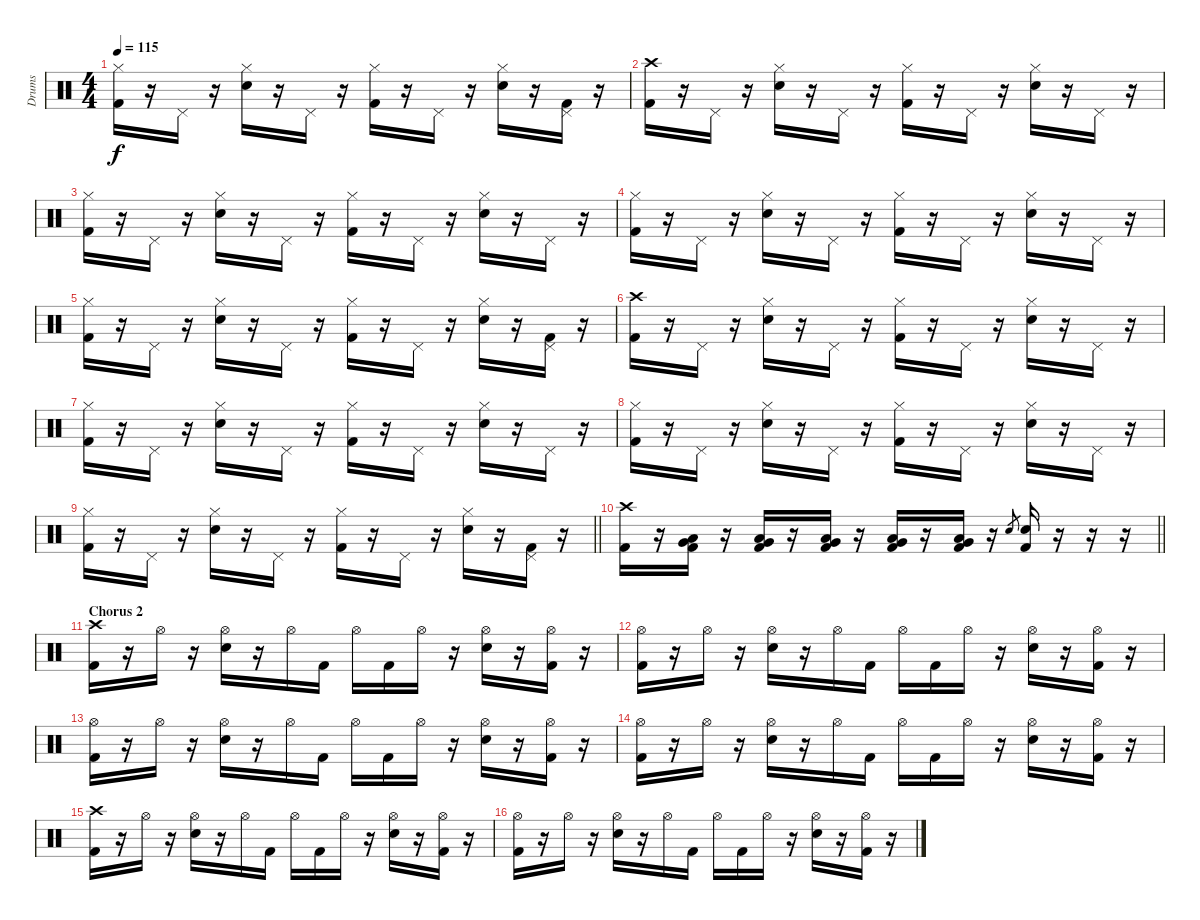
\track ("Drums" "Drums") {instrument percussion}
\staff {score}
\articulation defaults
\ts (4 4)
\tempo 115
\clef neutral
\ks c
("Hi-Hat (closed)" "Kick (hit) 2").16{dy f} r.16 "Pedal Hi-Hat (hit)".16 r.16 ("Hi-Hat (closed)" "Snare (hit) 2").16 r.16 "Pedal Hi-Hat (hit)".16 r.16 ("Hi-Hat (closed)" "Kick (hit) 2").16 r.16 "Pedal Hi-Hat (hit)".16 r.16 ("Hi-Hat (closed)" "Snare (hit) 2").16 r.16 ("Pedal Hi-Hat (hit)" "Kick (hit) 2").16 r.16 |
("Crash high (hit)" "Kick (hit) 2").16 r.16 "Pedal Hi-Hat (hit)".16 r.16 ("Hi-Hat (closed)" "Snare (hit) 2").16 r.16 "Pedal Hi-Hat (hit)".16 r.16 ("Hi-Hat (closed)" "Kick (hit) 2").16 r.16 "Pedal Hi-Hat (hit)".16 r.16 ("Hi-Hat (closed)" "Snare (hit) 2").16 r.16 "Pedal Hi-Hat (hit)".16 r.16 |
("Hi-Hat (closed)" "Kick (hit) 2").16 r.16 "Pedal Hi-Hat (hit)".16 r.16 ("Hi-Hat (closed)" "Snare (hit) 2").16 r.16 "Pedal Hi-Hat (hit)".16 r.16 ("Hi-Hat (closed)" "Kick (hit) 2").16 r.16 "Pedal Hi-Hat (hit)".16 r.16 ("Hi-Hat (closed)" "Snare (hit) 2").16 r.16 "Pedal Hi-Hat (hit)".16 r.16 |
("Hi-Hat (closed)" "Kick (hit) 2").16 r.16 "Pedal Hi-Hat (hit)".16 r.16 ("Hi-Hat (closed)" "Snare (hit) 2").16 r.16 "Pedal Hi-Hat (hit)".16 r.16 ("Hi-Hat (closed)" "Kick (hit) 2").16 r.16 "Pedal Hi-Hat (hit)".16 r.16 ("Hi-Hat (closed)" "Snare (hit) 2").16 r.16 "Pedal Hi-Hat (hit)".16 r.16 |
("Hi-Hat (closed)" "Kick (hit) 2").16 r.16 "Pedal Hi-Hat (hit)".16 r.16 ("Hi-Hat (closed)" "Snare (hit) 2").16 r.16 "Pedal Hi-Hat (hit)".16 r.16 ("Hi-Hat (closed)" "Kick (hit) 2").16 r.16 "Pedal Hi-Hat (hit)".16 r.16 ("Hi-Hat (closed)" "Snare (hit) 2").16 r.16 ("Pedal Hi-Hat (hit)" "Kick (hit) 2").16 r.16 |
("Crash high (hit)" "Kick (hit) 2").16 r.16 "Pedal Hi-Hat (hit)".16 r.16 ("Hi-Hat (closed)" "Snare (hit) 2").16 r.16 "Pedal Hi-Hat (hit)".16 r.16 ("Hi-Hat (closed)" "Kick (hit) 2").16 r.16 "Pedal Hi-Hat (hit)".16 r.16 ("Hi-Hat (closed)" "Snare (hit) 2").16 r.16 "Pedal Hi-Hat (hit)".16 r.16 |
("Hi-Hat (closed)" "Kick (hit) 2").16 r.16 "Pedal Hi-Hat (hit)".16 r.16 ("Hi-Hat (closed)" "Snare (hit) 2").16 r.16 "Pedal Hi-Hat (hit)".16 r.16 ("Hi-Hat (closed)" "Kick (hit) 2").16 r.16 "Pedal Hi-Hat (hit)".16 r.16 ("Hi-Hat (closed)" "Snare (hit) 2").16 r.16 "Pedal Hi-Hat (hit)".16 r.16 |
("Hi-Hat (closed)" "Kick (hit) 2").16 r.16 "Pedal Hi-Hat (hit)".16 r.16 ("Hi-Hat (closed)" "Snare (hit) 2").16 r.16 "Pedal Hi-Hat (hit)".16 r.16 ("Hi-Hat (closed)" "Kick (hit) 2").16 r.16 "Pedal Hi-Hat (hit)".16 r.16 ("Hi-Hat (closed)" "Snare (hit) 2").16 r.16 "Pedal Hi-Hat (hit)".16 r.16 |
\barLineRight lightlight
("Hi-Hat (closed)" "Kick (hit) 2").16 r.16 "Pedal Hi-Hat (hit)".16 r.16 ("Hi-Hat (closed)" "Snare (hit) 2").16 r.16 "Pedal Hi-Hat (hit)".16 r.16 ("Hi-Hat (closed)" "Kick (hit) 2").16 r.16 "Pedal Hi-Hat (hit)".16 r.16 ("Hi-Hat (closed)" "Snare (hit) 2").16 r.16 ("Pedal Hi-Hat (hit)" "Kick (hit) 2").16 r.16 |
\barLineRight lightlight
("Crash high (hit)" "Kick (hit) 2").16 r.16 ("Low Tom (hit)" "Very Low Tom (hit)" "Kick (hit) 2").16 r.16 ("Low Tom (hit)" "Very Low Tom (hit)" "Kick (hit) 2").16 r.16 ("Low Tom (hit)" "Very Low Tom (hit)" "Kick (hit) 2").16 r.16 ("Low Tom (hit)" "Very Low Tom (hit)" "Kick (hit) 2").16 r.16 ("Low Tom (hit)" "Very Low Tom (hit)" "Kick (hit) 2").16 r.16 "Snare (hit) 2".8{gr} ("Snare (hit) 2" "Kick (hit) 2").16 r.16 r.16 r.16 |
\section ("" "Chorus 2")
("Crash high (hit)" "Kick (hit) 2").16 r.16 "Hi-Hat (open)".16 r.16 ("Hi-Hat (open)" "Snare (hit) 2").16 r.16 "Hi-Hat (open)".16 "Kick (hit) 2".16 "Hi-Hat (open)".16 "Kick (hit) 2".16 "Hi-Hat (open)".16 r.16 ("Hi-Hat (open)" "Snare (hit) 2").16 r.16 ("Hi-Hat (open)" "Kick (hit) 2").16 r.16 |
("Hi-Hat (open)" "Kick (hit) 2").16 r.16 "Hi-Hat (open)".16 r.16 ("Hi-Hat (open)" "Snare (hit) 2").16 r.16 "Hi-Hat (open)".16 "Kick (hit) 2".16 "Hi-Hat (open)".16 "Kick (hit) 2".16 "Hi-Hat (open)".16 r.16 ("Hi-Hat (open)" "Snare (hit) 2").16 r.16 ("Hi-Hat (open)" "Kick (hit) 2").16 r.16 |
("Hi-Hat (open)" "Kick (hit) 2").16 r.16 "Hi-Hat (open)".16 r.16 ("Hi-Hat (open)" "Snare (hit) 2").16 r.16 "Hi-Hat (open)".16 "Kick (hit) 2".16 "Hi-Hat (open)".16 "Kick (hit) 2".16 "Hi-Hat (open)".16 r.16 ("Hi-Hat (open)" "Snare (hit) 2").16 r.16 ("Hi-Hat (open)" "Kick (hit) 2").16 r.16 |
("Hi-Hat (open)" "Kick (hit) 2").16 r.16 "Hi-Hat (open)".16 r.16 ("Hi-Hat (open)" "Snare (hit) 2").16 r.16 "Hi-Hat (open)".16 "Kick (hit) 2".16 "Hi-Hat (open)".16 "Kick (hit) 2".16 "Hi-Hat (open)".16 r.16 ("Hi-Hat (open)" "Snare (hit) 2").16 r.16 ("Hi-Hat (open)" "Kick (hit) 2").16 r.16 |
("Crash high (hit)" "Kick (hit) 2").16 r.16 "Hi-Hat (open)".16 r.16 ("Hi-Hat (open)" "Snare (hit) 2").16 r.16 "Hi-Hat (open)".16 "Kick (hit) 2".16 "Hi-Hat (open)".16 "Kick (hit) 2".16 "Hi-Hat (open)".16 r.16 ("Hi-Hat (open)" "Snare (hit) 2").16 r.16 ("Hi-Hat (open)" "Kick (hit) 2").16 r.16 |
("Hi-Hat (open)" "Kick (hit) 2").16 r.16 "Hi-Hat (open)".16 r.16 ("Hi-Hat (open)" "Snare (hit) 2").16 r.16 "Hi-Hat (open)".16 "Kick (hit) 2".16 "Hi-Hat (open)".16 "Kick (hit) 2".16 "Hi-Hat (open)".16 r.16 ("Hi-Hat (open)" "Snare (hit) 2").16 r.16 ("Hi-Hat (open)" "Kick (hit) 2").16 r.16
